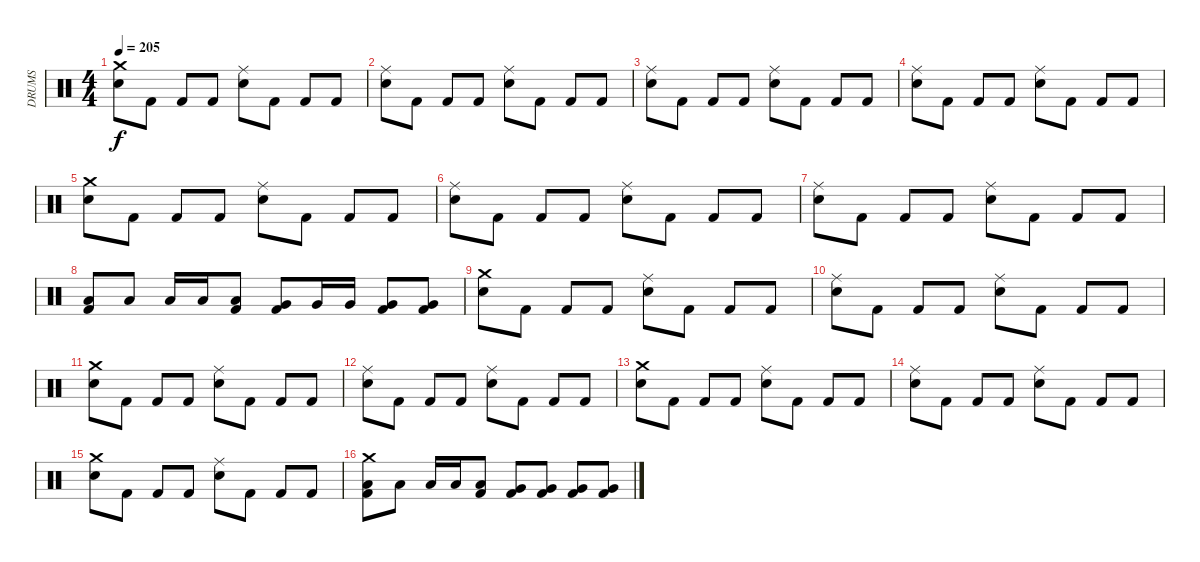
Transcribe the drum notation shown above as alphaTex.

\track ("DRUMS" "DRUMS") {instrument percussion}
\staff {score}
\articulation defaults
\ts (4 4)
\tempo 205
\clef neutral
\ks c
("Crash medium (hit)" "Snare (hit) 2").8{dy f} "Kick (hit) 2".8 "Kick (hit) 2".8 "Kick (hit) 2".8 ("Ride (middle)" "Snare (hit) 2").8 "Kick (hit) 2".8 "Kick (hit) 2".8 "Kick (hit) 2".8 |
("Ride (middle)" "Snare (hit) 2").8 "Kick (hit) 2".8 "Kick (hit) 2".8 "Kick (hit) 2".8 ("Ride (middle)" "Snare (hit) 2").8 "Kick (hit) 2".8 "Kick (hit) 2".8 "Kick (hit) 2".8 |
("Ride (middle)" "Snare (hit) 2").8 "Kick (hit) 2".8 "Kick (hit) 2".8 "Kick (hit) 2".8 ("Ride (middle)" "Snare (hit) 2").8 "Kick (hit) 2".8 "Kick (hit) 2".8 "Kick (hit) 2".8 |
("Ride (middle)" "Snare (hit) 2").8 "Kick (hit) 2".8 "Kick (hit) 2".8 "Kick (hit) 2".8 ("Ride (middle)" "Snare (hit) 2").8 "Kick (hit) 2".8 "Kick (hit) 2".8 "Kick (hit) 2".8 |
("Crash medium (hit)" "Snare (hit) 2").8 "Kick (hit) 2".8 "Kick (hit) 2".8 "Kick (hit) 2".8 ("Ride (middle)" "Snare (hit) 2").8 "Kick (hit) 2".8 "Kick (hit) 2".8 "Kick (hit) 2".8 |
("Ride (middle)" "Snare (hit) 2").8 "Kick (hit) 2".8 "Kick (hit) 2".8 "Kick (hit) 2".8 ("Ride (middle)" "Snare (hit) 2").8 "Kick (hit) 2".8 "Kick (hit) 2".8 "Kick (hit) 2".8 |
("Ride (middle)" "Snare (hit) 2").8 "Kick (hit) 2".8 "Kick (hit) 2".8 "Kick (hit) 2".8 ("Ride (middle)" "Snare (hit) 2").8 "Kick (hit) 2".8 "Kick (hit) 2".8 "Kick (hit) 2".8 |
("Low Tom (hit)" "Kick (hit) 2").8 "Low Tom (hit)".8 "Low Tom (hit)".16 "Low Tom (hit)".16 ("Low Tom (hit)" "Kick (hit) 2").8 ("Very Low Tom (hit)" "Kick (hit) 2").8 "Very Low Tom (hit)".16 "Very Low Tom (hit)".16 ("Very Low Tom (hit)" "Kick (hit) 2").8 ("Very Low Tom (hit)" "Kick (hit) 2").8 |
("Crash medium (hit)" "Snare (hit) 2").8 "Kick (hit) 2".8 "Kick (hit) 2".8 "Kick (hit) 2".8 ("Ride (middle)" "Snare (hit) 2").8 "Kick (hit) 2".8 "Kick (hit) 2".8 "Kick (hit) 2".8 |
("Ride (middle)" "Snare (hit) 2").8 "Kick (hit) 2".8 "Kick (hit) 2".8 "Kick (hit) 2".8 ("Ride (middle)" "Snare (hit) 2").8 "Kick (hit) 2".8 "Kick (hit) 2".8 "Kick (hit) 2".8 |
("Crash medium (hit)" "Snare (hit) 2").8 "Kick (hit) 2".8 "Kick (hit) 2".8 "Kick (hit) 2".8 ("Ride (middle)" "Snare (hit) 2").8 "Kick (hit) 2".8 "Kick (hit) 2".8 "Kick (hit) 2".8 |
("Ride (middle)" "Snare (hit) 2").8 "Kick (hit) 2".8 "Kick (hit) 2".8 "Kick (hit) 2".8 ("Ride (middle)" "Snare (hit) 2").8 "Kick (hit) 2".8 "Kick (hit) 2".8 "Kick (hit) 2".8 |
("Crash medium (hit)" "Snare (hit) 2").8 "Kick (hit) 2".8 "Kick (hit) 2".8 "Kick (hit) 2".8 ("Ride (middle)" "Snare (hit) 2").8 "Kick (hit) 2".8 "Kick (hit) 2".8 "Kick (hit) 2".8 |
("Ride (middle)" "Snare (hit) 2").8 "Kick (hit) 2".8 "Kick (hit) 2".8 "Kick (hit) 2".8 ("Ride (middle)" "Snare (hit) 2").8 "Kick (hit) 2".8 "Kick (hit) 2".8 "Kick (hit) 2".8 |
("Crash medium (hit)" "Snare (hit) 2").8 "Kick (hit) 2".8 "Kick (hit) 2".8 "Kick (hit) 2".8 ("Ride (middle)" "Snare (hit) 2").8 "Kick (hit) 2".8 "Kick (hit) 2".8 "Kick (hit) 2".8 |
("Crash medium (hit)" "Low Tom (hit)" "Kick (hit) 2").8 "Low Tom (hit)".8 "Low Tom (hit)".16 "Low Tom (hit)".16 ("Low Tom (hit)" "Kick (hit) 2").8 ("Very Low Tom (hit)" "Kick (hit) 2").8 ("Very Low Tom (hit)" "Kick (hit) 2").8 ("Very Low Tom (hit)" "Kick (hit) 2").8 ("Very Low Tom (hit)" "Kick (hit) 2").8
